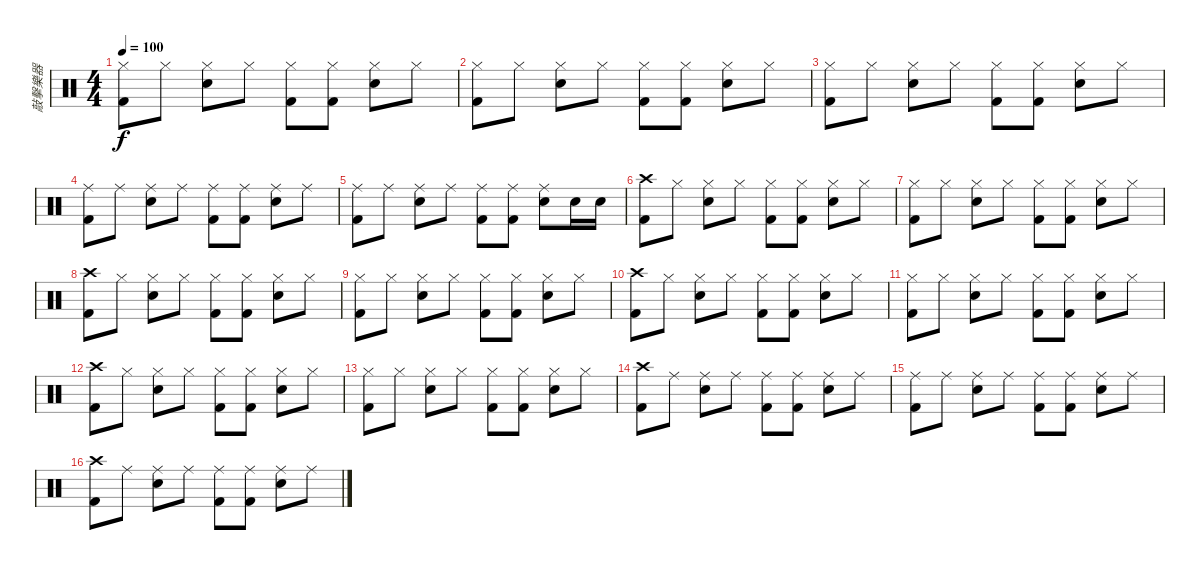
\track ("敲擊樂器" "敲擊樂器") {instrument percussion}
\staff {score}
\articulation defaults
\ts (4 4)
\tempo 100
\clef neutral
\ks c
("Hi-Hat (closed)" "Kick (hit) 2").8{dy f} "Hi-Hat (closed)".8 ("Hi-Hat (closed)" "Snare (hit) 2").8 "Hi-Hat (closed)".8 ("Hi-Hat (closed)" "Kick (hit) 2").8 ("Hi-Hat (closed)" "Kick (hit) 2").8 ("Hi-Hat (closed)" "Snare (hit) 2").8 "Hi-Hat (closed)".8 |
("Hi-Hat (closed)" "Kick (hit) 2").8 "Hi-Hat (closed)".8 ("Hi-Hat (closed)" "Snare (hit) 2").8 "Hi-Hat (closed)".8 ("Hi-Hat (closed)" "Kick (hit) 2").8 ("Hi-Hat (closed)" "Kick (hit) 2").8 ("Hi-Hat (closed)" "Snare (hit) 2").8 "Hi-Hat (closed)".8 |
("Hi-Hat (closed)" "Kick (hit) 2").8 "Hi-Hat (closed)".8 ("Hi-Hat (closed)" "Snare (hit) 2").8 "Hi-Hat (closed)".8 ("Hi-Hat (closed)" "Kick (hit) 2").8 ("Hi-Hat (closed)" "Kick (hit) 2").8 ("Hi-Hat (closed)" "Snare (hit) 2").8 "Hi-Hat (closed)".8 |
("Ride (middle)" "Kick (hit) 2").8 "Ride (middle)".8 ("Ride (middle)" "Snare (hit) 2").8 "Ride (middle)".8 ("Ride (middle)" "Kick (hit) 2").8 ("Ride (middle)" "Kick (hit) 2").8 ("Ride (middle)" "Snare (hit) 2").8 "Ride (middle)".8 |
("Ride (middle)" "Kick (hit) 2").8 "Ride (middle)".8 ("Ride (middle)" "Snare (hit) 2").8 "Ride (middle)".8 ("Ride (middle)" "Kick (hit) 2").8 ("Ride (middle)" "Kick (hit) 2").8 ("Ride (middle)" "Snare (hit) 2").8 "Snare (hit) 2".16 "Snare (hit) 2".16 |
("Crash high (hit)" "Kick (hit) 2").8 "Hi-Hat (closed)".8 ("Hi-Hat (closed)" "Snare (hit) 2").8 "Hi-Hat (closed)".8 ("Hi-Hat (closed)" "Kick (hit) 2").8 ("Hi-Hat (closed)" "Kick (hit) 2").8 ("Hi-Hat (closed)" "Snare (hit) 2").8 "Hi-Hat (closed)".8 |
("Hi-Hat (closed)" "Kick (hit) 2").8 "Hi-Hat (closed)".8 ("Hi-Hat (closed)" "Snare (hit) 2").8 "Hi-Hat (closed)".8 ("Hi-Hat (closed)" "Kick (hit) 2").8 ("Hi-Hat (closed)" "Kick (hit) 2").8 ("Hi-Hat (closed)" "Snare (hit) 2").8 "Hi-Hat (closed)".8 |
("Crash high (hit)" "Kick (hit) 2").8 "Hi-Hat (closed)".8 ("Hi-Hat (closed)" "Snare (hit) 2").8 "Hi-Hat (closed)".8 ("Hi-Hat (closed)" "Kick (hit) 2").8 ("Hi-Hat (closed)" "Kick (hit) 2").8 ("Hi-Hat (closed)" "Snare (hit) 2").8 "Hi-Hat (closed)".8 |
("Hi-Hat (closed)" "Kick (hit) 2").8 "Hi-Hat (closed)".8 ("Hi-Hat (closed)" "Snare (hit) 2").8 "Hi-Hat (closed)".8 ("Hi-Hat (closed)" "Kick (hit) 2").8 ("Hi-Hat (closed)" "Kick (hit) 2").8 ("Hi-Hat (closed)" "Snare (hit) 2").8 "Hi-Hat (closed)".8 |
("Crash high (hit)" "Kick (hit) 2").8 "Hi-Hat (closed)".8 ("Hi-Hat (closed)" "Snare (hit) 2").8 "Hi-Hat (closed)".8 ("Hi-Hat (closed)" "Kick (hit) 2").8 ("Hi-Hat (closed)" "Kick (hit) 2").8 ("Hi-Hat (closed)" "Snare (hit) 2").8 "Hi-Hat (closed)".8 |
("Hi-Hat (closed)" "Kick (hit) 2").8 "Hi-Hat (closed)".8 ("Hi-Hat (closed)" "Snare (hit) 2").8 "Hi-Hat (closed)".8 ("Hi-Hat (closed)" "Kick (hit) 2").8 ("Hi-Hat (closed)" "Kick (hit) 2").8 ("Hi-Hat (closed)" "Snare (hit) 2").8 "Hi-Hat (closed)".8 |
("Crash high (hit)" "Kick (hit) 2").8 "Hi-Hat (closed)".8 ("Hi-Hat (closed)" "Snare (hit) 2").8 "Hi-Hat (closed)".8 ("Hi-Hat (closed)" "Kick (hit) 2").8 ("Hi-Hat (closed)" "Kick (hit) 2").8 ("Hi-Hat (closed)" "Snare (hit) 2").8 "Hi-Hat (closed)".8 |
("Hi-Hat (closed)" "Kick (hit) 2").8 "Hi-Hat (closed)".8 ("Hi-Hat (closed)" "Snare (hit) 2").8 "Hi-Hat (closed)".8 ("Hi-Hat (closed)" "Kick (hit) 2").8 ("Hi-Hat (closed)" "Kick (hit) 2").8 ("Hi-Hat (closed)" "Snare (hit) 2").8 "Hi-Hat (closed)".8 |
("Crash high (hit)" "Kick (hit) 2").8 "Ride (middle)".8 ("Ride (middle)" "Snare (hit) 2").8 "Ride (middle)".8 ("Ride (middle)" "Kick (hit) 2").8 ("Ride (middle)" "Kick (hit) 2").8 ("Ride (middle)" "Snare (hit) 2").8 "Ride (middle)".8 |
("Ride (middle)" "Kick (hit) 2").8 "Ride (middle)".8 ("Ride (middle)" "Snare (hit) 2").8 "Ride (middle)".8 ("Ride (middle)" "Kick (hit) 2").8 ("Ride (middle)" "Kick (hit) 2").8 ("Ride (middle)" "Snare (hit) 2").8 "Ride (middle)".8 |
("Crash high (hit)" "Kick (hit) 2").8 "Ride (middle)".8 ("Ride (middle)" "Snare (hit) 2").8 "Ride (middle)".8 ("Ride (middle)" "Kick (hit) 2").8 ("Ride (middle)" "Kick (hit) 2").8 ("Ride (middle)" "Snare (hit) 2").8 "Ride (middle)".8
